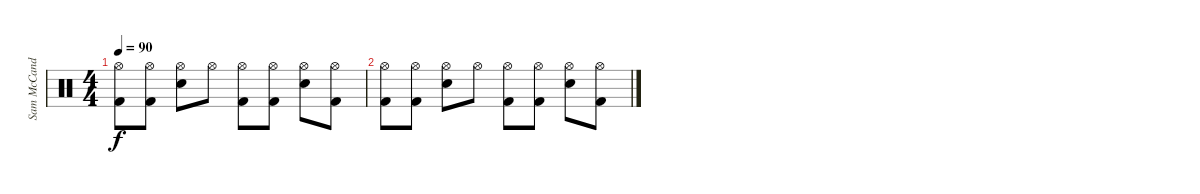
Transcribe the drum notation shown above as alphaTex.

\track ("Sam McCandless" "Sam McCand") {instrument percussion}
\staff {score}
\articulation defaults
\ts (4 4)
\tempo 90
\clef neutral
\ks c
("Hi-Hat (open)" "Kick (hit) 2").8{dy f} ("Hi-Hat (open)" "Kick (hit) 2").8 ("Hi-Hat (open)" "Electric Snare (hit)").8 "Hi-Hat (open)".8 ("Hi-Hat (open)" "Kick (hit) 2").8 ("Hi-Hat (open)" "Kick (hit) 2").8 ("Hi-Hat (open)" "Electric Snare (hit)").8 ("Hi-Hat (open)" "Kick (hit) 2").8 |
("Hi-Hat (open)" "Kick (hit) 2").8 ("Hi-Hat (open)" "Kick (hit) 2").8 ("Hi-Hat (open)" "Electric Snare (hit)").8 "Hi-Hat (open)".8 ("Hi-Hat (open)" "Kick (hit) 2").8 ("Hi-Hat (open)" "Kick (hit) 2").8 ("Hi-Hat (open)" "Electric Snare (hit)").8 ("Hi-Hat (open)" "Kick (hit) 2").8
